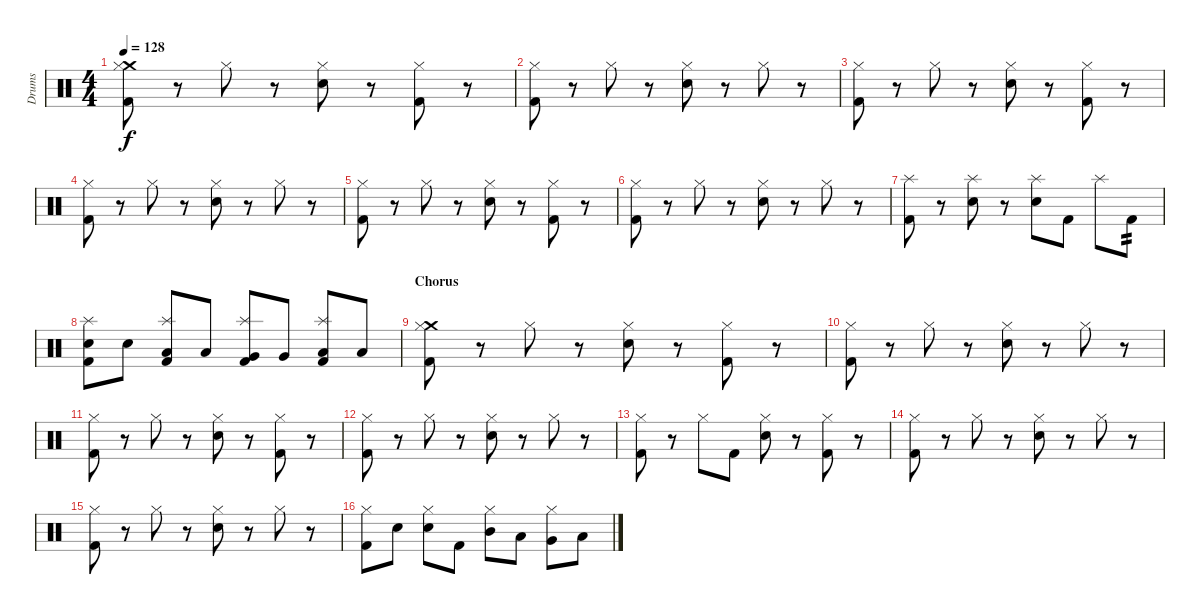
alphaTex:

\track ("Drums" "Drums") {instrument percussion}
\staff {score}
\articulation defaults
\ts (4 4)
\tempo 128
\clef neutral
\ks c
("Crash medium (hit)" "Hi-Hat (closed)" "Kick (hit) 2").8{dy f} r.8 "Hi-Hat (closed)".8 r.8 ("Snare (hit) 2" "Hi-Hat (closed)").8 r.8 ("Hi-Hat (closed)" "Kick (hit) 2").8 r.8 |
("Hi-Hat (closed)" "Kick (hit) 2").8 r.8 "Hi-Hat (closed)".8 r.8 ("Snare (hit) 2" "Hi-Hat (closed)").8 r.8 "Hi-Hat (closed)".8 r.8 |
("Hi-Hat (closed)" "Kick (hit) 2").8 r.8 "Hi-Hat (closed)".8 r.8 ("Snare (hit) 2" "Hi-Hat (closed)").8 r.8 ("Hi-Hat (closed)" "Kick (hit) 2").8 r.8 |
("Hi-Hat (closed)" "Kick (hit) 2").8 r.8 "Hi-Hat (closed)".8 r.8 ("Snare (hit) 2" "Hi-Hat (closed)").8 r.8 "Hi-Hat (closed)".8 r.8 |
("Hi-Hat (closed)" "Kick (hit) 2").8 r.8 "Hi-Hat (closed)".8 r.8 ("Snare (hit) 2" "Hi-Hat (closed)").8 r.8 ("Hi-Hat (closed)" "Kick (hit) 2").8 r.8 |
("Hi-Hat (closed)" "Kick (hit) 2").8 r.8 "Hi-Hat (closed)".8 r.8 ("Snare (hit) 2" "Hi-Hat (closed)").8 r.8 "Hi-Hat (closed)".8 r.8 |
("Splash (hit)" "Kick (hit) 2").8 r.8 ("Splash (hit)" "Snare (hit) 2").8 r.8 ("Splash (hit)" "Snare (hit) 2").8 "Kick (hit) 2".8 "Splash (hit)".8 "Kick (hit) 2".8{tp 2} |
("Splash (hit)" "Snare (hit) 2" "Kick (hit) 2").8 "Snare (hit) 2".8 ("Splash (hit)" "Low Tom (hit)" "Kick (hit) 2").8 "Low Tom (hit)".8 ("Splash (hit)" "Very Low Tom (hit)" "Kick (hit) 2").8 "Very Low Tom (hit)".8 ("Splash (hit)" "Low Floor Tom (hit)" "Kick (hit) 2").8 "Low Floor Tom (hit)".8 |
\section ("" "Chorus")
("Crash medium (hit)" "Hi-Hat (closed)" "Kick (hit) 2").8 r.8 "Hi-Hat (closed)".8 r.8 ("Snare (hit) 2" "Hi-Hat (closed)").8 r.8 ("Hi-Hat (closed)" "Kick (hit) 2").8 r.8 |
("Hi-Hat (closed)" "Kick (hit) 2").8 r.8 "Hi-Hat (closed)".8 r.8 ("Snare (hit) 2" "Hi-Hat (closed)").8 r.8 "Hi-Hat (closed)".8 r.8 |
("Hi-Hat (closed)" "Kick (hit) 2").8 r.8 "Hi-Hat (closed)".8 r.8 ("Snare (hit) 2" "Hi-Hat (closed)").8 r.8 ("Hi-Hat (closed)" "Kick (hit) 2").8 r.8 |
("Hi-Hat (closed)" "Kick (hit) 2").8 r.8 "Hi-Hat (closed)".8 r.8 ("Snare (hit) 2" "Hi-Hat (closed)").8 r.8 "Hi-Hat (closed)".8 r.8 |
("Hi-Hat (closed)" "Kick (hit) 2").8 r.8 "Hi-Hat (closed)".8 "Kick (hit) 2".8 ("Snare (hit) 2" "Hi-Hat (closed)").8 r.8 ("Hi-Hat (closed)" "Kick (hit) 2").8 r.8 |
("Hi-Hat (closed)" "Kick (hit) 2").8 r.8 "Hi-Hat (closed)".8 r.8 ("Snare (hit) 2" "Hi-Hat (closed)").8 r.8 "Hi-Hat (closed)".8 r.8 |
("Hi-Hat (closed)" "Kick (hit) 2").8 r.8 "Hi-Hat (closed)".8 r.8 ("Snare (hit) 2" "Hi-Hat (closed)").8 r.8 "Hi-Hat (closed)".8 r.8 |
("Hi-Hat (closed)" "Kick (hit) 2").8 "Snare (hit) 2".8 ("Snare (hit) 2" "Hi-Hat (closed)").8 "Kick (hit) 2".8 ("Mid Tom (hit)" "Hi-Hat (closed)").8 "Low Tom (hit)".8 ("Very Low Tom (hit)" "Hi-Hat (closed)").8 "Low Floor Tom (hit)".8
